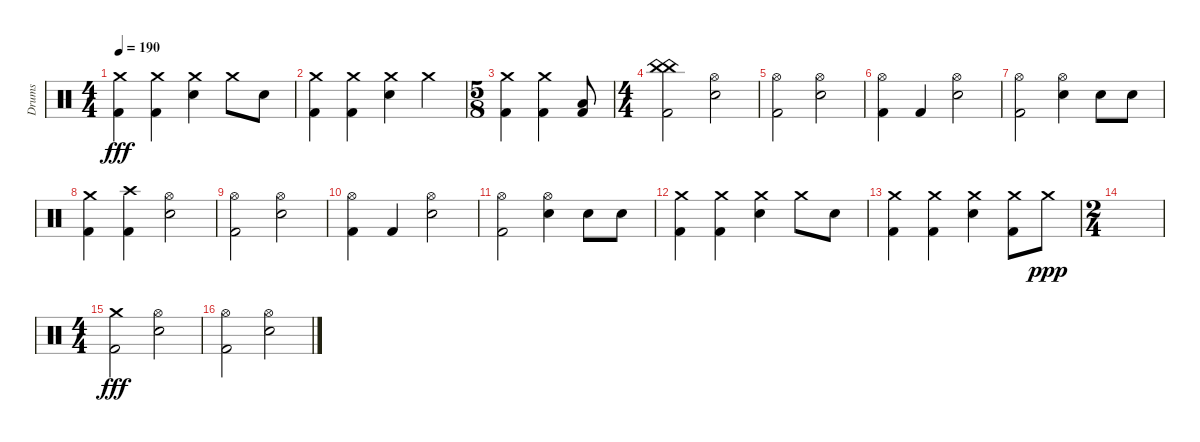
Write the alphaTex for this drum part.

\track ("Drums" "Drums") {instrument percussion}
\staff {score}
\articulation defaults
\ts (4 4)
\tempo 190
\clef neutral
\ks c
("Kick (hit) 2" "Crash medium (hit)").4{dy fff} ("Kick (hit) 2" "Crash medium (hit)").4 ("Electric Snare (hit)" "Crash medium (hit)").4 "Crash medium (hit)".8 "Electric Snare (hit)".8 |
("Kick (hit) 2" "Crash medium (hit)").4 ("Kick (hit) 2" "Crash medium (hit)").4 ("Electric Snare (hit)" "Crash medium (hit)").4 "Crash medium (hit)".4 |
\ts (5 8)
("Kick (hit) 2" "Crash medium (hit)").4 ("Kick (hit) 2" "Crash medium (hit)").4 ("Kick (hit) 2" "Low Floor Tom (hit)").8 |
\ts (4 4)
("Kick (hit) 2" "China (hit)" "China (hit)").2 ("Hi-Hat (open)" "Electric Snare (hit)").2 |
("Kick (hit) 2" "Hi-Hat (open)").2 ("Electric Snare (hit)" "Hi-Hat (open)").2 |
("Kick (hit) 2" "Hi-Hat (open)").4 "Kick (hit) 2".4 ("Electric Snare (hit)" "Hi-Hat (open)").2 |
("Kick (hit) 2" "Hi-Hat (open)").2 ("Electric Snare (hit)" "Hi-Hat (open)").4 "Electric Snare (hit)".8 "Electric Snare (hit)".8 |
("Kick (hit) 2" "Crash medium (hit)").4 ("Crash high (hit)" "Kick (hit) 2").4 ("Hi-Hat (open)" "Electric Snare (hit)").2 |
("Kick (hit) 2" "Hi-Hat (open)").2 ("Electric Snare (hit)" "Hi-Hat (open)").2 |
("Kick (hit) 2" "Hi-Hat (open)").4 "Kick (hit) 2".4 ("Electric Snare (hit)" "Hi-Hat (open)").2 |
("Kick (hit) 2" "Hi-Hat (open)").2 ("Electric Snare (hit)" "Hi-Hat (open)").4 "Electric Snare (hit)".8 "Electric Snare (hit)".8 |
("Kick (hit) 2" "Crash medium (hit)").4 ("Kick (hit) 2" "Crash medium (hit)").4 ("Electric Snare (hit)" "Crash medium (hit)").4 "Crash medium (hit)".8 "Electric Snare (hit)".8 |
("Kick (hit) 2" "Crash medium (hit)").4 ("Kick (hit) 2" "Crash medium (hit)").4 ("Electric Snare (hit)" "Crash medium (hit)").4 ("Crash medium (hit)" "Kick (hit) 2").8 "Crash medium (hit)".8{dy ppp} |
\ts (2 4)
|
\ts (4 4)
("Kick (hit) 2" "Crash medium (hit)").2{dy fff} ("Hi-Hat (open)" "Electric Snare (hit)").2 |
("Kick (hit) 2" "Hi-Hat (open)").2 ("Electric Snare (hit)" "Hi-Hat (open)").2
